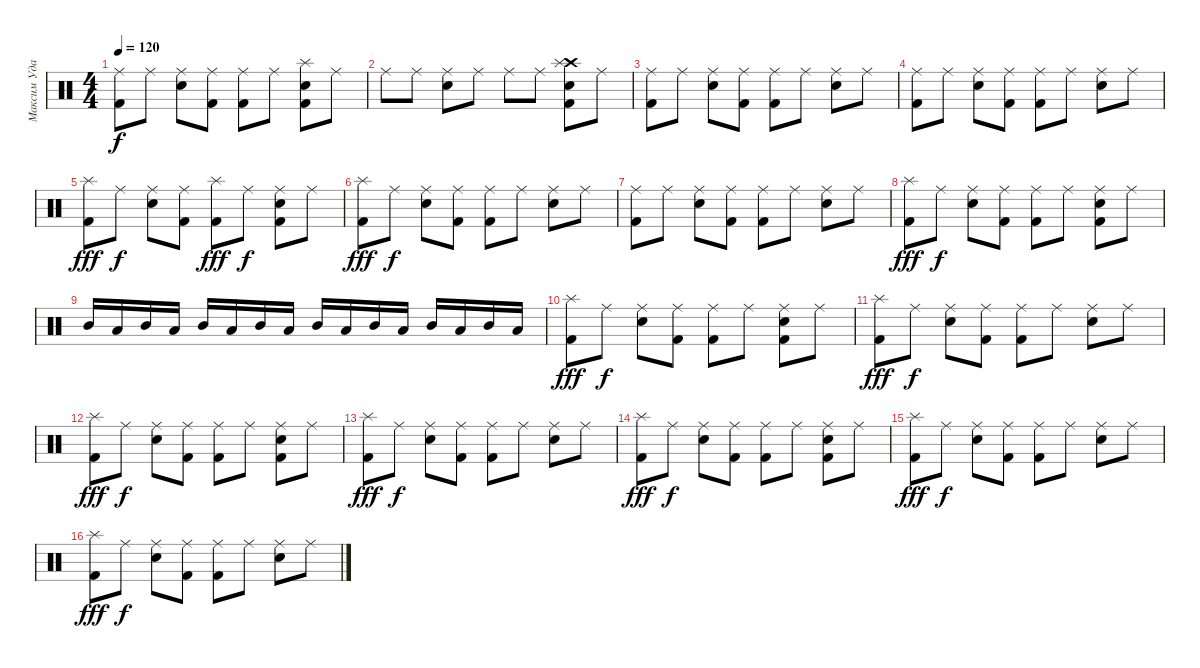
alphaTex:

\track ("Максим Удалов" "Максим Уда") {instrument percussion}
\staff {score}
\articulation defaults
\ts (4 4)
\tempo 120
\clef neutral
\ks c
("Kick (hit) 2" "Ride (middle)").8{dy f} "Ride (middle)".8 ("Ride (middle)" "Electric Snare (hit)").8 ("Kick (hit) 2" "Ride (middle)").8 ("Kick (hit) 2" "Ride (middle)").8 "Ride (middle)".8 ("Kick (hit) 2" "Splash (hit)" "Electric Snare (hit)").8 "Ride (middle)".8 |
"Ride (middle)".8 "Ride (middle)".8 ("Ride (middle)" "Electric Snare (hit)").8 "Ride (middle)".8 "Ride (middle)".8 "Ride (middle)".8 ("Crash high (hit)" "Kick (hit) 2" "Splash (hit)" "Electric Snare (hit)").8 "Ride (middle)".8 |
("Kick (hit) 2" "Ride (middle)").8 "Ride (middle)".8 ("Ride (middle)" "Electric Snare (hit)").8 ("Kick (hit) 2" "Ride (middle)").8 ("Kick (hit) 2" "Ride (middle)").8 "Ride (middle)".8 ("Ride (middle)" "Electric Snare (hit)").8 "Ride (middle)".8 |
("Kick (hit) 2" "Ride (middle)").8 "Ride (middle)".8 ("Ride (middle)" "Electric Snare (hit)").8 ("Kick (hit) 2" "Ride (middle)").8 ("Kick (hit) 2" "Ride (middle)").8 "Ride (middle)".8 ("Ride (middle)" "Electric Snare (hit)").8 "Ride (middle)".8 |
("Kick (hit) 2" "Splash (hit)").8{dy fff} "Ride (middle)".8{dy f} ("Ride (middle)" "Electric Snare (hit)").8 ("Kick (hit) 2" "Ride (middle)").8 ("Kick (hit) 2" "Splash (hit)").8{dy fff} "Ride (middle)".8{dy f} ("Kick (hit) 2" "Ride (middle)" "Electric Snare (hit)").8 "Ride (middle)".8 |
("Kick (hit) 2" "Splash (hit)").8{dy fff} "Ride (middle)".8{dy f} ("Ride (middle)" "Electric Snare (hit)").8 ("Kick (hit) 2" "Ride (middle)").8 ("Kick (hit) 2" "Ride (middle)").8 "Ride (middle)".8 ("Ride (middle)" "Electric Snare (hit)").8 "Ride (middle)".8 |
("Kick (hit) 2" "Ride (middle)").8 "Ride (middle)".8 ("Ride (middle)" "Electric Snare (hit)").8 ("Kick (hit) 2" "Ride (middle)").8 ("Kick (hit) 2" "Ride (middle)").8 "Ride (middle)".8 ("Ride (middle)" "Electric Snare (hit)").8 "Ride (middle)".8 |
("Kick (hit) 2" "Splash (hit)").8{dy fff} "Ride (middle)".8{dy f} ("Ride (middle)" "Electric Snare (hit)").8 ("Kick (hit) 2" "Ride (middle)").8 ("Kick (hit) 2" "Ride (middle)").8 "Ride (middle)".8 ("Kick (hit) 2" "Ride (middle)" "Electric Snare (hit)").8 "Ride (middle)".8 |
"Mid Tom (hit)".16 "Low Tom (hit)".16 "Mid Tom (hit)".16 "Low Tom (hit)".16 "Mid Tom (hit)".16 "Low Tom (hit)".16 "Mid Tom (hit)".16 "Low Tom (hit)".16 "Mid Tom (hit)".16 "Low Tom (hit)".16 "Mid Tom (hit)".16 "Low Tom (hit)".16 "Mid Tom (hit)".16 "Low Tom (hit)".16 "Mid Tom (hit)".16 "Low Tom (hit)".16 |
("Kick (hit) 2" "Splash (hit)").8{dy fff} "Ride (middle)".8{dy f} ("Ride (middle)" "Electric Snare (hit)").8 ("Kick (hit) 2" "Ride (middle)").8 ("Kick (hit) 2" "Ride (middle)").8 "Ride (middle)".8 ("Kick (hit) 2" "Ride (middle)" "Electric Snare (hit)").8 "Ride (middle)".8 |
("Kick (hit) 2" "Splash (hit)").8{dy fff} "Ride (middle)".8{dy f} ("Ride (middle)" "Electric Snare (hit)").8 ("Kick (hit) 2" "Ride (middle)").8 ("Kick (hit) 2" "Ride (middle)").8 "Ride (middle)".8 ("Ride (middle)" "Electric Snare (hit)").8 "Ride (middle)".8 |
("Kick (hit) 2" "Splash (hit)").8{dy fff} "Ride (middle)".8{dy f} ("Ride (middle)" "Electric Snare (hit)").8 ("Kick (hit) 2" "Ride (middle)").8 ("Kick (hit) 2" "Ride (middle)").8 "Ride (middle)".8 ("Kick (hit) 2" "Ride (middle)" "Electric Snare (hit)").8 "Ride (middle)".8 |
("Kick (hit) 2" "Splash (hit)").8{dy fff} "Ride (middle)".8{dy f} ("Ride (middle)" "Electric Snare (hit)").8 ("Kick (hit) 2" "Ride (middle)").8 ("Kick (hit) 2" "Ride (middle)").8 "Ride (middle)".8 ("Ride (middle)" "Electric Snare (hit)").8 "Ride (middle)".8 |
("Kick (hit) 2" "Splash (hit)").8{dy fff} "Ride (middle)".8{dy f} ("Ride (middle)" "Electric Snare (hit)").8 ("Kick (hit) 2" "Ride (middle)").8 ("Kick (hit) 2" "Ride (middle)").8 "Ride (middle)".8 ("Kick (hit) 2" "Ride (middle)" "Electric Snare (hit)").8 "Ride (middle)".8 |
("Kick (hit) 2" "Splash (hit)").8{dy fff} "Ride (middle)".8{dy f} ("Ride (middle)" "Electric Snare (hit)").8 ("Kick (hit) 2" "Ride (middle)").8 ("Kick (hit) 2" "Ride (middle)").8 "Ride (middle)".8 ("Ride (middle)" "Electric Snare (hit)").8 "Ride (middle)".8 |
("Kick (hit) 2" "Splash (hit)").8{dy fff} "Ride (middle)".8{dy f} ("Ride (middle)" "Electric Snare (hit)").8 ("Kick (hit) 2" "Ride (middle)").8 ("Kick (hit) 2" "Ride (middle)").8 "Ride (middle)".8 ("Ride (middle)" "Electric Snare (hit)").8 "Ride (middle)".8
